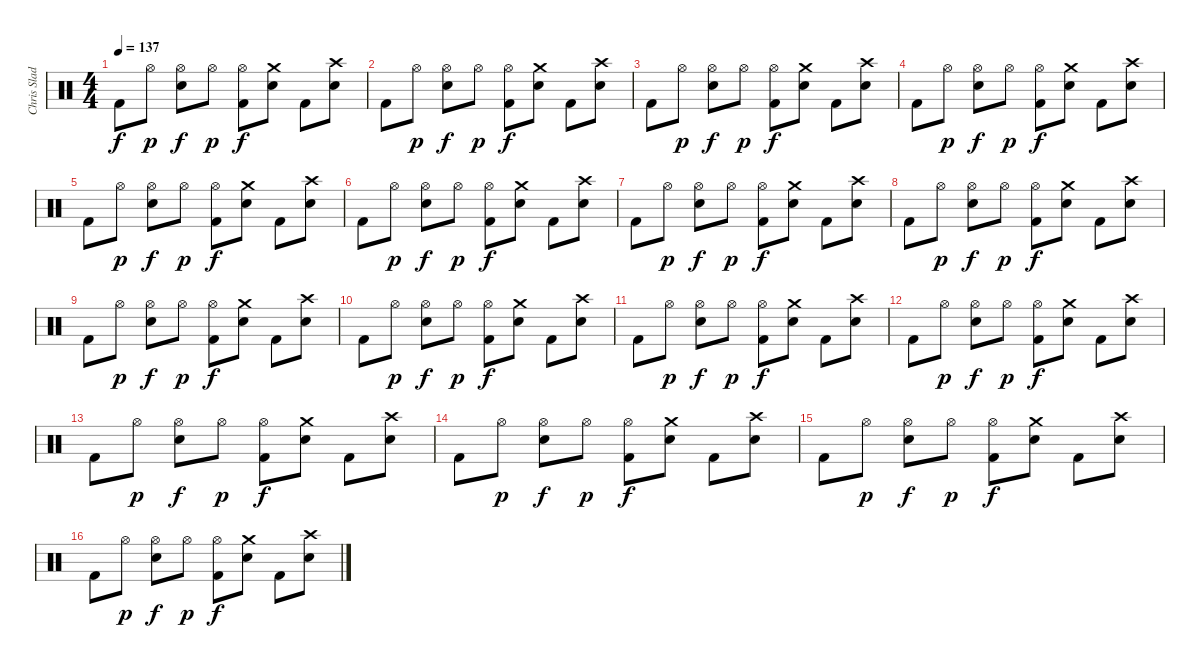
\track ("Chris Slade / Drums" "Chris Slad") {instrument percussion}
\staff {score}
\articulation defaults
\ts (4 4)
\tempo 137
\clef neutral
\ks c "Kick (hit) 2".8{dy f} "Hi-Hat (open)".8{dy p}
("Hi-Hat (open)" "Electric Snare (hit)").8{dy f} "Hi-Hat (open)".8{dy p} ("Hi-Hat (open)" "Kick (hit) 2").8{dy f} ("Crash medium (hit)" "Electric Snare (hit)").8 "Kick (hit) 2".8 ("Crash high (hit)" "Electric Snare (hit)").8 |
"Kick (hit) 2".8 "Hi-Hat (open)".8{dy p} ("Hi-Hat (open)" "Electric Snare (hit)").8{dy f} "Hi-Hat (open)".8{dy p} ("Hi-Hat (open)" "Kick (hit) 2").8{dy f} ("Crash medium (hit)" "Electric Snare (hit)").8 "Kick (hit) 2".8 ("Crash high (hit)" "Electric Snare (hit)").8 |
"Kick (hit) 2".8 "Hi-Hat (open)".8{dy p} ("Hi-Hat (open)" "Electric Snare (hit)").8{dy f} "Hi-Hat (open)".8{dy p} ("Hi-Hat (open)" "Kick (hit) 2").8{dy f} ("Crash medium (hit)" "Electric Snare (hit)").8 "Kick (hit) 2".8 ("Crash high (hit)" "Electric Snare (hit)").8 |
"Kick (hit) 2".8 "Hi-Hat (open)".8{dy p} ("Hi-Hat (open)" "Electric Snare (hit)").8{dy f} "Hi-Hat (open)".8{dy p} ("Hi-Hat (open)" "Kick (hit) 2").8{dy f} ("Crash medium (hit)" "Electric Snare (hit)").8 "Kick (hit) 2".8 ("Crash high (hit)" "Electric Snare (hit)").8 |
"Kick (hit) 2".8 "Hi-Hat (open)".8{dy p} ("Hi-Hat (open)" "Electric Snare (hit)").8{dy f} "Hi-Hat (open)".8{dy p} ("Hi-Hat (open)" "Kick (hit) 2").8{dy f} ("Crash medium (hit)" "Electric Snare (hit)").8 "Kick (hit) 2".8 ("Crash high (hit)" "Electric Snare (hit)").8 |
"Kick (hit) 2".8 "Hi-Hat (open)".8{dy p} ("Hi-Hat (open)" "Electric Snare (hit)").8{dy f} "Hi-Hat (open)".8{dy p} ("Hi-Hat (open)" "Kick (hit) 2").8{dy f} ("Crash medium (hit)" "Electric Snare (hit)").8 "Kick (hit) 2".8 ("Crash high (hit)" "Electric Snare (hit)").8 |
"Kick (hit) 2".8 "Hi-Hat (open)".8{dy p} ("Hi-Hat (open)" "Electric Snare (hit)").8{dy f} "Hi-Hat (open)".8{dy p} ("Hi-Hat (open)" "Kick (hit) 2").8{dy f} ("Crash medium (hit)" "Electric Snare (hit)").8 "Kick (hit) 2".8 ("Crash high (hit)" "Electric Snare (hit)").8 |
"Kick (hit) 2".8 "Hi-Hat (open)".8{dy p} ("Hi-Hat (open)" "Electric Snare (hit)").8{dy f} "Hi-Hat (open)".8{dy p} ("Hi-Hat (open)" "Kick (hit) 2").8{dy f} ("Crash medium (hit)" "Electric Snare (hit)").8 "Kick (hit) 2".8 ("Crash high (hit)" "Electric Snare (hit)").8 |
"Kick (hit) 2".8 "Hi-Hat (open)".8{dy p} ("Hi-Hat (open)" "Electric Snare (hit)").8{dy f} "Hi-Hat (open)".8{dy p} ("Hi-Hat (open)" "Kick (hit) 2").8{dy f} ("Crash medium (hit)" "Electric Snare (hit)").8 "Kick (hit) 2".8 ("Crash high (hit)" "Electric Snare (hit)").8 |
"Kick (hit) 2".8 "Hi-Hat (open)".8{dy p} ("Hi-Hat (open)" "Electric Snare (hit)").8{dy f} "Hi-Hat (open)".8{dy p} ("Hi-Hat (open)" "Kick (hit) 2").8{dy f} ("Crash medium (hit)" "Electric Snare (hit)").8 "Kick (hit) 2".8 ("Crash high (hit)" "Electric Snare (hit)").8 |
"Kick (hit) 2".8 "Hi-Hat (open)".8{dy p} ("Hi-Hat (open)" "Electric Snare (hit)").8{dy f} "Hi-Hat (open)".8{dy p} ("Hi-Hat (open)" "Kick (hit) 2").8{dy f} ("Crash medium (hit)" "Electric Snare (hit)").8 "Kick (hit) 2".8 ("Crash high (hit)" "Electric Snare (hit)").8 |
"Kick (hit) 2".8 "Hi-Hat (open)".8{dy p} ("Hi-Hat (open)" "Electric Snare (hit)").8{dy f} "Hi-Hat (open)".8{dy p} ("Hi-Hat (open)" "Kick (hit) 2").8{dy f} ("Crash medium (hit)" "Electric Snare (hit)").8 "Kick (hit) 2".8 ("Crash high (hit)" "Electric Snare (hit)").8 |
"Kick (hit) 2".8 "Hi-Hat (open)".8{dy p} ("Hi-Hat (open)" "Electric Snare (hit)").8{dy f} "Hi-Hat (open)".8{dy p} ("Hi-Hat (open)" "Kick (hit) 2").8{dy f} ("Crash medium (hit)" "Electric Snare (hit)").8 "Kick (hit) 2".8 ("Crash high (hit)" "Electric Snare (hit)").8 |
"Kick (hit) 2".8 "Hi-Hat (open)".8{dy p} ("Hi-Hat (open)" "Electric Snare (hit)").8{dy f} "Hi-Hat (open)".8{dy p} ("Hi-Hat (open)" "Kick (hit) 2").8{dy f} ("Crash medium (hit)" "Electric Snare (hit)").8 "Kick (hit) 2".8 ("Crash high (hit)" "Electric Snare (hit)").8 |
"Kick (hit) 2".8 "Hi-Hat (open)".8{dy p} ("Hi-Hat (open)" "Electric Snare (hit)").8{dy f} "Hi-Hat (open)".8{dy p} ("Hi-Hat (open)" "Kick (hit) 2").8{dy f} ("Crash medium (hit)" "Electric Snare (hit)").8 "Kick (hit) 2".8 ("Crash high (hit)" "Electric Snare (hit)").8 |
"Kick (hit) 2".8 "Hi-Hat (open)".8{dy p} ("Hi-Hat (open)" "Electric Snare (hit)").8{dy f} "Hi-Hat (open)".8{dy p} ("Hi-Hat (open)" "Kick (hit) 2").8{dy f} ("Crash medium (hit)" "Electric Snare (hit)").8 "Kick (hit) 2".8 ("Crash high (hit)" "Electric Snare (hit)").8
